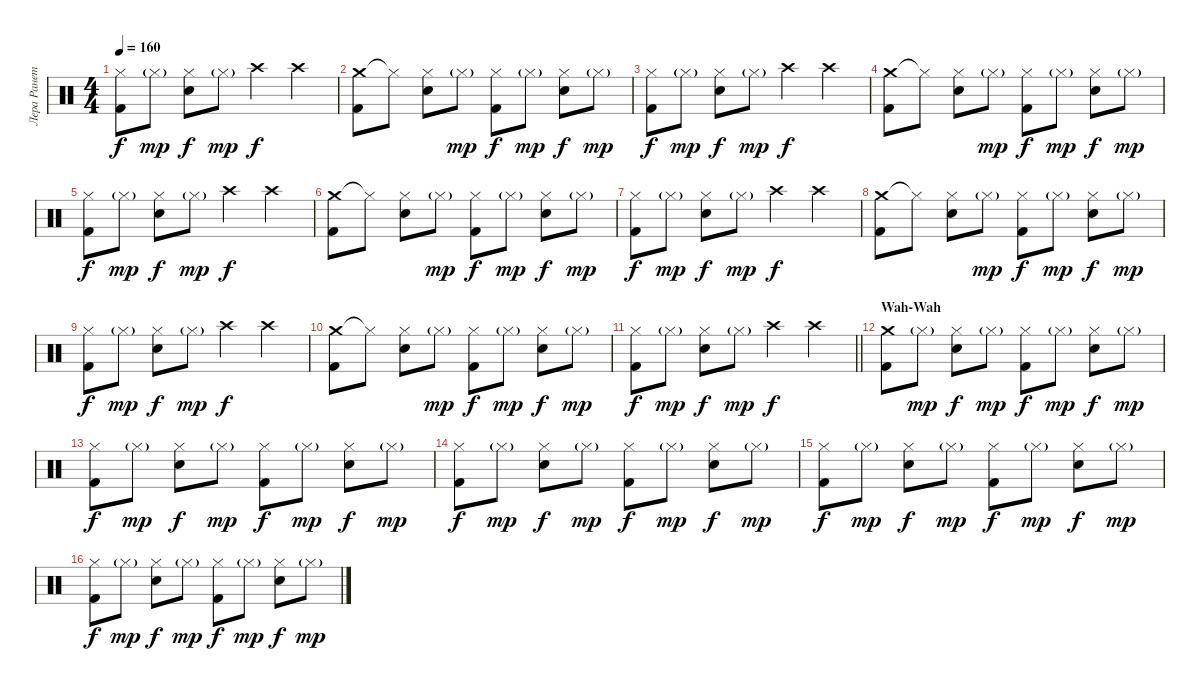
\track ("Лера Ранетка" "Лера Ранет") {instrument percussion}
\staff {score}
\articulation defaults
\ts (4 4)
\tempo 160
\clef neutral
\ks c
("Hi-Hat (closed)" "Kick (hit) 2").8{dy f} "Hi-Hat (closed)"{g}.8{dy mp} ("Hi-Hat (closed)" "Snare (hit) 2").8{dy f} "Hi-Hat (closed)"{g}.8{dy mp} "Crash high (hit)".4{dy f} "Crash high (hit)".4 |
("Crash medium (hit)" "Kick (hit) 2").8 "Hi-Hat (closed)"{t}.8 ("Hi-Hat (closed)" "Snare (hit) 2").8 "Hi-Hat (closed)"{g}.8{dy mp} ("Hi-Hat (closed)" "Kick (hit) 2").8{dy f} "Hi-Hat (closed)"{g}.8{dy mp} ("Hi-Hat (closed)" "Snare (hit) 2").8{dy f} "Hi-Hat (closed)"{g}.8{dy mp} |
("Hi-Hat (closed)" "Kick (hit) 2").8{dy f} "Hi-Hat (closed)"{g}.8{dy mp} ("Hi-Hat (closed)" "Snare (hit) 2").8{dy f} "Hi-Hat (closed)"{g}.8{dy mp} "Crash high (hit)".4{dy f} "Crash high (hit)".4 |
("Crash medium (hit)" "Kick (hit) 2").8 "Hi-Hat (closed)"{t}.8 ("Hi-Hat (closed)" "Snare (hit) 2").8 "Hi-Hat (closed)"{g}.8{dy mp} ("Hi-Hat (closed)" "Kick (hit) 2").8{dy f} "Hi-Hat (closed)"{g}.8{dy mp} ("Hi-Hat (closed)" "Snare (hit) 2").8{dy f} "Hi-Hat (closed)"{g}.8{dy mp} |
("Hi-Hat (closed)" "Kick (hit) 2").8{dy f} "Hi-Hat (closed)"{g}.8{dy mp} ("Hi-Hat (closed)" "Snare (hit) 2").8{dy f} "Hi-Hat (closed)"{g}.8{dy mp} "Crash high (hit)".4{dy f} "Crash high (hit)".4 |
("Crash medium (hit)" "Kick (hit) 2").8 "Hi-Hat (closed)"{t}.8 ("Hi-Hat (closed)" "Snare (hit) 2").8 "Hi-Hat (closed)"{g}.8{dy mp} ("Hi-Hat (closed)" "Kick (hit) 2").8{dy f} "Hi-Hat (closed)"{g}.8{dy mp} ("Hi-Hat (closed)" "Snare (hit) 2").8{dy f} "Hi-Hat (closed)"{g}.8{dy mp} |
("Hi-Hat (closed)" "Kick (hit) 2").8{dy f} "Hi-Hat (closed)"{g}.8{dy mp} ("Hi-Hat (closed)" "Snare (hit) 2").8{dy f} "Hi-Hat (closed)"{g}.8{dy mp} "Crash high (hit)".4{dy f} "Crash high (hit)".4 |
("Crash medium (hit)" "Kick (hit) 2").8 "Hi-Hat (closed)"{t}.8 ("Hi-Hat (closed)" "Snare (hit) 2").8 "Hi-Hat (closed)"{g}.8{dy mp} ("Hi-Hat (closed)" "Kick (hit) 2").8{dy f} "Hi-Hat (closed)"{g}.8{dy mp} ("Hi-Hat (closed)" "Snare (hit) 2").8{dy f} "Hi-Hat (closed)"{g}.8{dy mp} |
("Hi-Hat (closed)" "Kick (hit) 2").8{dy f} "Hi-Hat (closed)"{g}.8{dy mp} ("Hi-Hat (closed)" "Snare (hit) 2").8{dy f} "Hi-Hat (closed)"{g}.8{dy mp} "Crash high (hit)".4{dy f} "Crash high (hit)".4 |
("Crash medium (hit)" "Kick (hit) 2").8 "Hi-Hat (closed)"{t}.8 ("Hi-Hat (closed)" "Snare (hit) 2").8 "Hi-Hat (closed)"{g}.8{dy mp} ("Hi-Hat (closed)" "Kick (hit) 2").8{dy f} "Hi-Hat (closed)"{g}.8{dy mp} ("Hi-Hat (closed)" "Snare (hit) 2").8{dy f} "Hi-Hat (closed)"{g}.8{dy mp} |
\barLineRight lightlight
("Hi-Hat (closed)" "Kick (hit) 2").8{dy f} "Hi-Hat (closed)"{g}.8{dy mp} ("Hi-Hat (closed)" "Snare (hit) 2").8{dy f} "Hi-Hat (closed)"{g}.8{dy mp} "Crash high (hit)".4{dy f} "Crash high (hit)".4 |
\section ("" "Wah-Wah")
("Crash medium (hit)" "Kick (hit) 2").8 "Hi-Hat (closed)"{g}.8{dy mp} ("Hi-Hat (closed)" "Snare (hit) 2").8{dy f} "Hi-Hat (closed)"{g}.8{dy mp} ("Hi-Hat (closed)" "Kick (hit) 2").8{dy f} "Hi-Hat (closed)"{g}.8{dy mp} ("Hi-Hat (closed)" "Snare (hit) 2").8{dy f} "Hi-Hat (closed)"{g}.8{dy mp} |
("Hi-Hat (closed)" "Kick (hit) 2").8{dy f} "Hi-Hat (closed)"{g}.8{dy mp} ("Hi-Hat (closed)" "Snare (hit) 2").8{dy f} "Hi-Hat (closed)"{g}.8{dy mp} ("Hi-Hat (closed)" "Kick (hit) 2").8{dy f} "Hi-Hat (closed)"{g}.8{dy mp} ("Hi-Hat (closed)" "Snare (hit) 2").8{dy f} "Hi-Hat (closed)"{g}.8{dy mp} |
("Hi-Hat (closed)" "Kick (hit) 2").8{dy f} "Hi-Hat (closed)"{g}.8{dy mp} ("Hi-Hat (closed)" "Snare (hit) 2").8{dy f} "Hi-Hat (closed)"{g}.8{dy mp} ("Hi-Hat (closed)" "Kick (hit) 2").8{dy f} "Hi-Hat (closed)"{g}.8{dy mp} ("Hi-Hat (closed)" "Snare (hit) 2").8{dy f} "Hi-Hat (closed)"{g}.8{dy mp} |
("Hi-Hat (closed)" "Kick (hit) 2").8{dy f} "Hi-Hat (closed)"{g}.8{dy mp} ("Hi-Hat (closed)" "Snare (hit) 2").8{dy f} "Hi-Hat (closed)"{g}.8{dy mp} ("Hi-Hat (closed)" "Kick (hit) 2").8{dy f} "Hi-Hat (closed)"{g}.8{dy mp} ("Hi-Hat (closed)" "Snare (hit) 2").8{dy f} "Hi-Hat (closed)"{g}.8{dy mp} |
("Hi-Hat (closed)" "Kick (hit) 2").8{dy f} "Hi-Hat (closed)"{g}.8{dy mp} ("Hi-Hat (closed)" "Snare (hit) 2").8{dy f} "Hi-Hat (closed)"{g}.8{dy mp} ("Hi-Hat (closed)" "Kick (hit) 2").8{dy f} "Hi-Hat (closed)"{g}.8{dy mp} ("Hi-Hat (closed)" "Snare (hit) 2").8{dy f} "Hi-Hat (closed)"{g}.8{dy mp}
